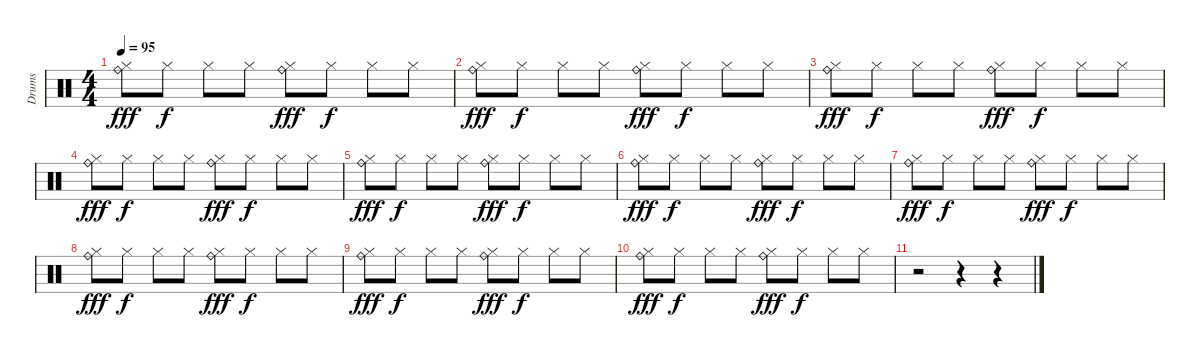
\bracketExtendMode groupsimilarinstruments
\otherSystemsTrackNameOrientation horizontal
\track ("Drumkit" "Drums") {instrument percussion}
\staff {score}
\articulation defaults
\ts (4 4)
\tempo 95
\clef neutral
\ks c
("Ride (bell)" "Hi-Hat (closed)").8{dy fff} "Hi-Hat (closed)".8{dy f} "Hi-Hat (closed)".8 "Hi-Hat (closed)".8 ("Ride (bell)" "Hi-Hat (closed)").8{dy fff} "Hi-Hat (closed)".8{dy f} "Hi-Hat (closed)".8 "Hi-Hat (closed)".8 |
("Ride (bell)" "Hi-Hat (closed)").8{dy fff} "Hi-Hat (closed)".8{dy f} "Hi-Hat (closed)".8 "Hi-Hat (closed)".8 ("Ride (bell)" "Hi-Hat (closed)").8{dy fff} "Hi-Hat (closed)".8{dy f} "Hi-Hat (closed)".8 "Hi-Hat (closed)".8 |
("Ride (bell)" "Hi-Hat (closed)").8{dy fff} "Hi-Hat (closed)".8{dy f} "Hi-Hat (closed)".8 "Hi-Hat (closed)".8 ("Ride (bell)" "Hi-Hat (closed)").8{dy fff} "Hi-Hat (closed)".8{dy f} "Hi-Hat (closed)".8 "Hi-Hat (closed)".8 |
("Ride (bell)" "Hi-Hat (closed)").8{dy fff} "Hi-Hat (closed)".8{dy f} "Hi-Hat (closed)".8 "Hi-Hat (closed)".8 ("Ride (bell)" "Hi-Hat (closed)").8{dy fff} "Hi-Hat (closed)".8{dy f} "Hi-Hat (closed)".8 "Hi-Hat (closed)".8 |
("Ride (bell)" "Hi-Hat (closed)").8{dy fff} "Hi-Hat (closed)".8{dy f} "Hi-Hat (closed)".8 "Hi-Hat (closed)".8 ("Ride (bell)" "Hi-Hat (closed)").8{dy fff} "Hi-Hat (closed)".8{dy f} "Hi-Hat (closed)".8 "Hi-Hat (closed)".8 |
("Ride (bell)" "Hi-Hat (closed)").8{dy fff} "Hi-Hat (closed)".8{dy f} "Hi-Hat (closed)".8 "Hi-Hat (closed)".8 ("Ride (bell)" "Hi-Hat (closed)").8{dy fff} "Hi-Hat (closed)".8{dy f} "Hi-Hat (closed)".8 "Hi-Hat (closed)".8 |
("Ride (bell)" "Hi-Hat (closed)").8{dy fff} "Hi-Hat (closed)".8{dy f} "Hi-Hat (closed)".8 "Hi-Hat (closed)".8 ("Ride (bell)" "Hi-Hat (closed)").8{dy fff} "Hi-Hat (closed)".8{dy f} "Hi-Hat (closed)".8 "Hi-Hat (closed)".8 |
("Ride (bell)" "Hi-Hat (closed)").8{dy fff} "Hi-Hat (closed)".8{dy f} "Hi-Hat (closed)".8 "Hi-Hat (closed)".8 ("Ride (bell)" "Hi-Hat (closed)").8{dy fff} "Hi-Hat (closed)".8{dy f} "Hi-Hat (closed)".8 "Hi-Hat (closed)".8 |
("Ride (bell)" "Hi-Hat (closed)").8{dy fff} "Hi-Hat (closed)".8{dy f} "Hi-Hat (closed)".8 "Hi-Hat (closed)".8 ("Ride (bell)" "Hi-Hat (closed)").8{dy fff} "Hi-Hat (closed)".8{dy f} "Hi-Hat (closed)".8 "Hi-Hat (closed)".8 |
("Ride (bell)" "Hi-Hat (closed)").8{dy fff} "Hi-Hat (closed)".8{dy f} "Hi-Hat (closed)".8 "Hi-Hat (closed)".8 ("Ride (bell)" "Hi-Hat (closed)").8{dy fff} "Hi-Hat (closed)".8{dy f} "Hi-Hat (closed)".8 "Hi-Hat (closed)".8 |
r.2 r.4 r.4
